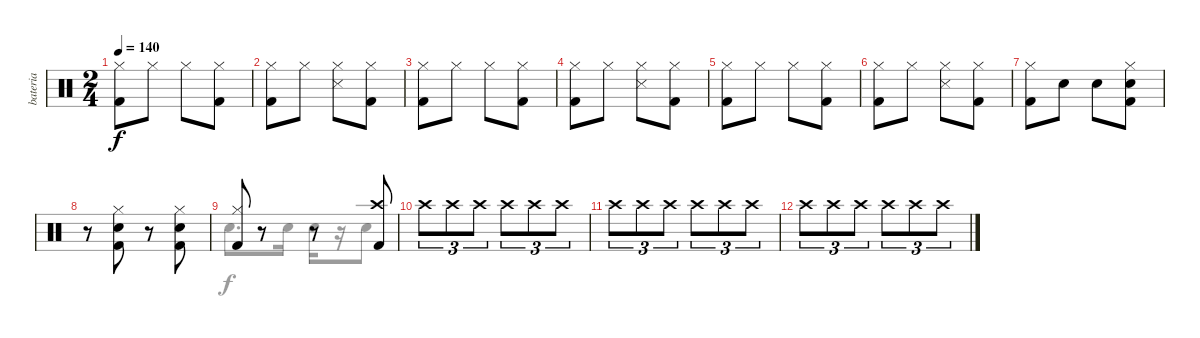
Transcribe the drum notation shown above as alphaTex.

\track ("bateria" "bateria") {instrument percussion}
\staff {score}
\articulation defaults
\voice
\ts (2 4)
\tempo 140
\clef neutral
\ks c
("Hi-Hat (closed)" "Kick (hit) 2").8{dy f} "Hi-Hat (closed)".8 "Hi-Hat (closed)".8 ("Hi-Hat (closed)" "Kick (hit) 2").8 |
("Hi-Hat (closed)" "Kick (hit) 2").8 "Hi-Hat (closed)".8 ("Hi-Hat (closed)" "Snare (side stick) 3").8 ("Hi-Hat (closed)" "Kick (hit) 2").8 |
("Hi-Hat (closed)" "Kick (hit) 2").8 "Hi-Hat (closed)".8 "Hi-Hat (closed)".8 ("Hi-Hat (closed)" "Kick (hit) 2").8 |
("Hi-Hat (closed)" "Kick (hit) 2").8 "Hi-Hat (closed)".8 ("Hi-Hat (closed)" "Snare (side stick) 3").8 ("Hi-Hat (closed)" "Kick (hit) 2").8 |
("Hi-Hat (closed)" "Kick (hit) 2").8 "Hi-Hat (closed)".8 "Hi-Hat (closed)".8 ("Hi-Hat (closed)" "Kick (hit) 2").8 |
("Hi-Hat (closed)" "Kick (hit) 2").8 "Hi-Hat (closed)".8 ("Hi-Hat (closed)" "Snare (side stick) 3").8 ("Hi-Hat (closed)" "Kick (hit) 2").8 |
("Hi-Hat (closed)" "Kick (hit) 2").8 "Snare (hit) 2".8 "Snare (hit) 2".8 ("Hi-Hat (closed)" "Snare (hit) 2" "Kick (hit) 2").8 |
r.8 ("Hi-Hat (closed)" "Snare (hit) 2" "Kick (hit) 2").8 r.8 ("Hi-Hat (closed)" "Snare (hit) 2" "Kick (hit) 2").8 |
("Hi-Hat (closed)" "Kick (hit) 2").8 r.8 r.8 ("Crash high (hit)" "Kick (hit) 2").8 |
"Crash high (hit)".8{tu (3 2) volume 6} "Crash high (hit)".8{tu (3 2)} "Crash high (hit)".8{tu (3 2)} "Crash high (hit)".8{tu (3 2)} "Crash high (hit)".8{tu (3 2)} "Crash high (hit)".8{tu (3 2)} |
"Crash high (hit)".8{tu (3 2)} "Crash high (hit)".8{tu (3 2)} "Crash high (hit)".8{tu (3 2)} "Crash high (hit)".8{tu (3 2)} "Crash high (hit)".8{tu (3 2)} "Crash high (hit)".8{tu (3 2)} |
"Crash high (hit)".8{tu (3 2)} "Crash high (hit)".8{tu (3 2)} "Crash high (hit)".8{tu (3 2)} "Crash high (hit)".8{tu (3 2)} "Crash high (hit)".8{tu (3 2)} "Crash high (hit)".8{tu (3 2)}
\voice
\clef neutral
\ottava regular
\simile none
\ks c
|
|
|
|
|
|
|
|
"Snare (hit) 2".8{d} "Snare (hit) 2".16 "Snare (hit) 2".16 r.16 "Snare (hit) 2".8 |
|
|
